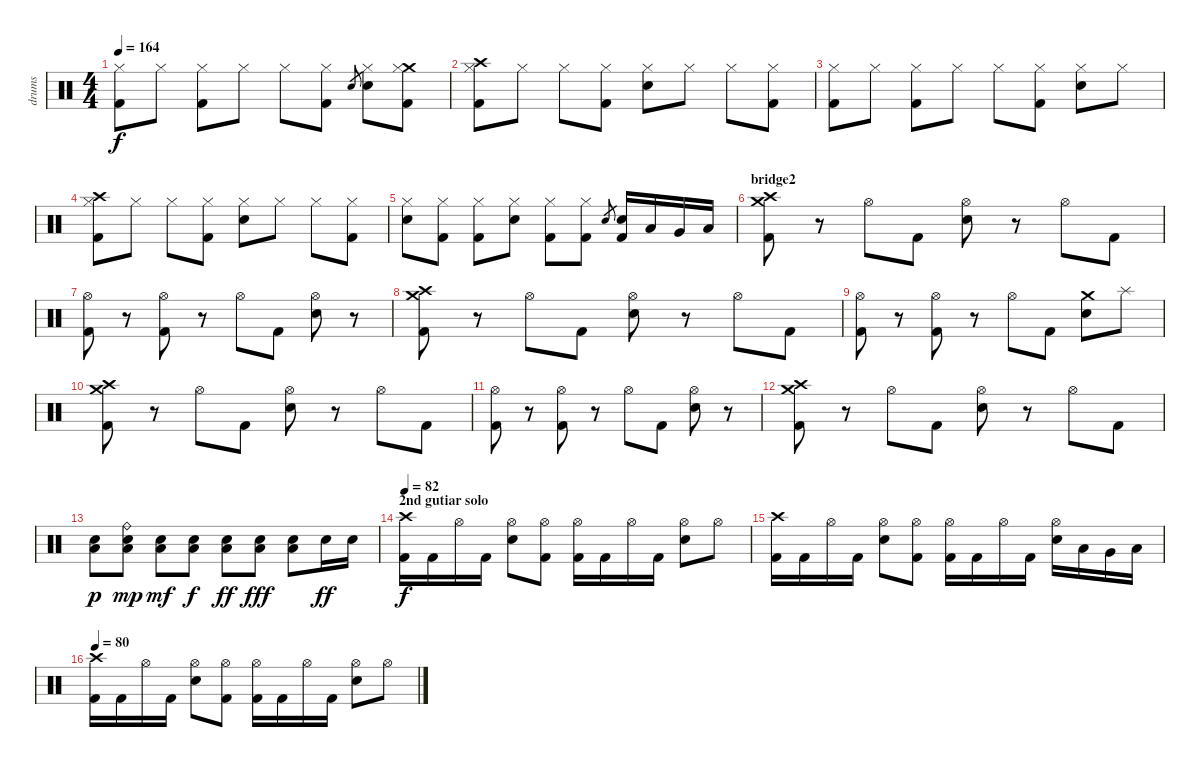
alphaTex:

\track ("drums" "drums") {instrument percussion}
\staff {score}
\articulation defaults
\ts (4 4)
\tempo 164
\clef neutral
\ks c
("Hi-Hat (closed)" "Kick (hit) 2").8{dy f} "Hi-Hat (closed)".8 ("Hi-Hat (closed)" "Kick (hit) 2").8 "Hi-Hat (closed)".8 "Hi-Hat (closed)".8 ("Hi-Hat (closed)" "Kick (hit) 2").8 "Electric Snare (hit)".8{gr} ("Hi-Hat (closed)" "Electric Snare (hit)").8 ("Crash medium (hit)" "Hi-Hat (closed)" "Kick (hit) 2").8 |
("Crash high (hit)" "Hi-Hat (closed)" "Kick (hit) 2").8 "Hi-Hat (closed)".8 "Hi-Hat (closed)".8 ("Hi-Hat (closed)" "Kick (hit) 2").8 ("Hi-Hat (closed)" "Electric Snare (hit)").8 "Hi-Hat (closed)".8 "Hi-Hat (closed)".8 ("Hi-Hat (closed)" "Kick (hit) 2").8 |
("Hi-Hat (closed)" "Kick (hit) 2").8 "Hi-Hat (closed)".8 ("Hi-Hat (closed)" "Kick (hit) 2").8 "Hi-Hat (closed)".8 "Hi-Hat (closed)".8 ("Hi-Hat (closed)" "Kick (hit) 2").8 ("Hi-Hat (closed)" "Electric Snare (hit)").8 "Hi-Hat (closed)".8 |
("Crash high (hit)" "Hi-Hat (closed)" "Kick (hit) 2").8 "Hi-Hat (closed)".8 "Hi-Hat (closed)".8 ("Hi-Hat (closed)" "Kick (hit) 2").8 ("Hi-Hat (closed)" "Electric Snare (hit)").8 "Hi-Hat (closed)".8 "Hi-Hat (closed)".8 ("Hi-Hat (closed)" "Kick (hit) 2").8 |
("Hi-Hat (closed)" "Electric Snare (hit)").8 ("Hi-Hat (closed)" "Kick (hit) 2").8 ("Hi-Hat (closed)" "Kick (hit) 2").8 ("Hi-Hat (closed)" "Electric Snare (hit)").8 ("Hi-Hat (closed)" "Kick (hit) 2").8 ("Hi-Hat (closed)" "Kick (hit) 2").8 "Electric Snare (hit)".8{gr} ("Electric Snare (hit)" "Kick (hit) 2").16 "Low Tom (hit)".16 "Very Low Tom (hit)".16 "Low Floor Tom (hit)".16 |
\section ("" "bridge2")
("Crash high (hit)" "Crash medium (hit)" "Kick (hit) 2").8 r.8 "Hi-Hat (open)".8 "Kick (hit) 2".8 ("Hi-Hat (open)" "Electric Snare (hit)").8 r.8 "Hi-Hat (open)".8 "Kick (hit) 2".8 |
("Hi-Hat (open)" "Kick (hit) 2").8 r.8 ("Hi-Hat (open)" "Kick (hit) 2").8 r.8 "Hi-Hat (open)".8 "Kick (hit) 2".8 ("Hi-Hat (open)" "Electric Snare (hit)").8 r.8 |
("Crash high (hit)" "Crash medium (hit)" "Kick (hit) 2").8 r.8 "Hi-Hat (open)".8 "Kick (hit) 2".8 ("Hi-Hat (open)" "Electric Snare (hit)").8 r.8 "Hi-Hat (open)".8 "Kick (hit) 2".8 |
("Hi-Hat (open)" "Kick (hit) 2").8 r.8 ("Hi-Hat (open)" "Kick (hit) 2").8 r.8 "Hi-Hat (open)".8 "Kick (hit) 2".8 ("Crash medium (hit)" "Electric Snare (hit)").8 "Splash (hit)".8 |
("Crash high (hit)" "Crash medium (hit)" "Kick (hit) 2").8 r.8 "Hi-Hat (open)".8 "Kick (hit) 2".8 ("Hi-Hat (open)" "Electric Snare (hit)").8 r.8 "Hi-Hat (open)".8 "Kick (hit) 2".8 |
("Hi-Hat (open)" "Kick (hit) 2").8 r.8 ("Hi-Hat (open)" "Kick (hit) 2").8 r.8 "Hi-Hat (open)".8 "Kick (hit) 2".8 ("Hi-Hat (open)" "Electric Snare (hit)").8 r.8 |
("Crash high (hit)" "Crash medium (hit)" "Kick (hit) 2").8 r.8 "Hi-Hat (open)".8 "Kick (hit) 2".8 ("Hi-Hat (open)" "Electric Snare (hit)").8 r.8 "Hi-Hat (open)".8 "Kick (hit) 2".8 |
("Electric Snare (hit)" "Low Floor Tom (hit)").8{dy p} ("Ride (bell)" "Electric Snare (hit)" "Low Floor Tom (hit)").8{dy mp} ("Electric Snare (hit)" "Low Floor Tom (hit)").8{dy mf} ("Electric Snare (hit)" "Low Floor Tom (hit)").8{dy f} ("Electric Snare (hit)" "Low Floor Tom (hit)").8{dy ff} ("Electric Snare (hit)" "Low Floor Tom (hit)").8{dy fff} ("Electric Snare (hit)" "Low Floor Tom (hit)").8 "Electric Snare (hit)".16{dy ff} "Electric Snare (hit)".16 |
\section ("" "2nd gutiar solo")
\tempo 82
("Crash high (hit)" "Kick (hit) 2").16{dy f} "Kick (hit) 2".16 "Hi-Hat (open)".16 "Kick (hit) 2".16 ("Hi-Hat (open)" "Electric Snare (hit)").8 ("Hi-Hat (open)" "Kick (hit) 2").8 ("Hi-Hat (open)" "Kick (hit) 2").16 "Kick (hit) 2".16 "Hi-Hat (open)".16 "Kick (hit) 2".16 ("Hi-Hat (open)" "Electric Snare (hit)").8 "Hi-Hat (open)".8 |
("Crash high (hit)" "Kick (hit) 2").16 "Kick (hit) 2".16 "Hi-Hat (open)".16 "Kick (hit) 2".16 ("Hi-Hat (open)" "Electric Snare (hit)").8 ("Hi-Hat (open)" "Kick (hit) 2").8 ("Hi-Hat (open)" "Kick (hit) 2").16 "Kick (hit) 2".16 "Hi-Hat (open)".16 "Kick (hit) 2".16 ("Hi-Hat (open)" "Electric Snare (hit)").16 "Low Tom (hit)".16 "Very Low Tom (hit)".16 "Low Floor Tom (hit)".16 |
\tempo 80
("Crash high (hit)" "Kick (hit) 2").16 "Kick (hit) 2".16 "Hi-Hat (open)".16 "Kick (hit) 2".16 ("Hi-Hat (open)" "Electric Snare (hit)").8 ("Hi-Hat (open)" "Kick (hit) 2").8 ("Hi-Hat (open)" "Kick (hit) 2").16 "Kick (hit) 2".16 "Hi-Hat (open)".16 "Kick (hit) 2".16 ("Hi-Hat (open)" "Electric Snare (hit)").8 "Hi-Hat (open)".8
